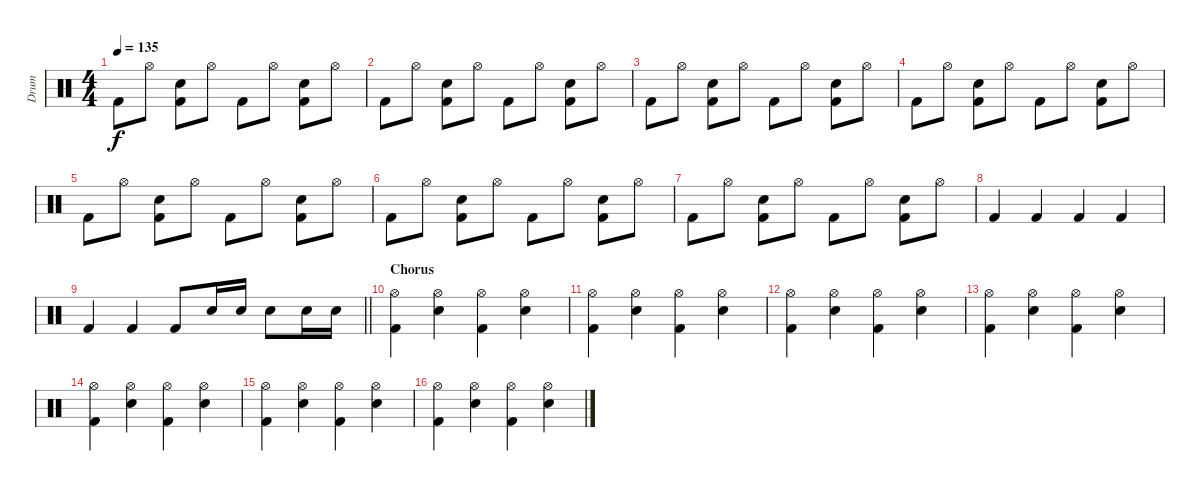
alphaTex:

\track ("Drum" "Drum") {instrument percussion}
\staff {score}
\articulation defaults
\ts (4 4)
\tempo 135
\clef neutral
\ks c "Kick (hit) 2".8{dy f} "Hi-Hat (open)".8
("Electric Snare (hit)" "Kick (hit) 2").8 "Hi-Hat (open)".8 "Kick (hit) 2".8 "Hi-Hat (open)".8 ("Electric Snare (hit)" "Kick (hit) 2").8 "Hi-Hat (open)".8 |
"Kick (hit) 2".8 "Hi-Hat (open)".8 ("Electric Snare (hit)" "Kick (hit) 2").8 "Hi-Hat (open)".8 "Kick (hit) 2".8 "Hi-Hat (open)".8 ("Electric Snare (hit)" "Kick (hit) 2").8 "Hi-Hat (open)".8 |
"Kick (hit) 2".8 "Hi-Hat (open)".8 ("Electric Snare (hit)" "Kick (hit) 2").8 "Hi-Hat (open)".8 "Kick (hit) 2".8 "Hi-Hat (open)".8 ("Electric Snare (hit)" "Kick (hit) 2").8 "Hi-Hat (open)".8 |
"Kick (hit) 2".8 "Hi-Hat (open)".8 ("Electric Snare (hit)" "Kick (hit) 2").8 "Hi-Hat (open)".8 "Kick (hit) 2".8 "Hi-Hat (open)".8 ("Electric Snare (hit)" "Kick (hit) 2").8 "Hi-Hat (open)".8 |
"Kick (hit) 2".8 "Hi-Hat (open)".8 ("Electric Snare (hit)" "Kick (hit) 2").8 "Hi-Hat (open)".8 "Kick (hit) 2".8 "Hi-Hat (open)".8 ("Electric Snare (hit)" "Kick (hit) 2").8 "Hi-Hat (open)".8 |
"Kick (hit) 2".8 "Hi-Hat (open)".8 ("Electric Snare (hit)" "Kick (hit) 2").8 "Hi-Hat (open)".8 "Kick (hit) 2".8 "Hi-Hat (open)".8 ("Electric Snare (hit)" "Kick (hit) 2").8 "Hi-Hat (open)".8 |
"Kick (hit) 2".8 "Hi-Hat (open)".8 ("Electric Snare (hit)" "Kick (hit) 2").8 "Hi-Hat (open)".8 "Kick (hit) 2".8 "Hi-Hat (open)".8 ("Electric Snare (hit)" "Kick (hit) 2").8 "Hi-Hat (open)".8 |
"Kick (hit) 2".4 "Kick (hit) 2".4 "Kick (hit) 2".4 "Kick (hit) 2".4 |
\barLineRight lightlight "Kick (hit) 2".4 "Kick (hit) 2".4 "Kick (hit) 2".8 "Electric Snare (hit)".16 "Electric Snare (hit)".16 "Electric Snare (hit)".8 "Electric Snare (hit)".16 "Electric Snare (hit)".16
|
\section ("" "Chorus")
("Hi-Hat (open)" "Kick (hit) 2").4 ("Hi-Hat (open)" "Electric Snare (hit)").4 ("Hi-Hat (open)" "Kick (hit) 2").4 ("Hi-Hat (open)" "Electric Snare (hit)").4 |
("Hi-Hat (open)" "Kick (hit) 2").4 ("Hi-Hat (open)" "Electric Snare (hit)").4 ("Hi-Hat (open)" "Kick (hit) 2").4 ("Hi-Hat (open)" "Electric Snare (hit)").4 |
("Hi-Hat (open)" "Kick (hit) 2").4 ("Hi-Hat (open)" "Electric Snare (hit)").4 ("Hi-Hat (open)" "Kick (hit) 2").4 ("Hi-Hat (open)" "Electric Snare (hit)").4 |
("Hi-Hat (open)" "Kick (hit) 2").4 ("Hi-Hat (open)" "Electric Snare (hit)").4 ("Hi-Hat (open)" "Kick (hit) 2").4 ("Hi-Hat (open)" "Electric Snare (hit)").4 |
("Hi-Hat (open)" "Kick (hit) 2").4 ("Hi-Hat (open)" "Electric Snare (hit)").4 ("Hi-Hat (open)" "Kick (hit) 2").4 ("Hi-Hat (open)" "Electric Snare (hit)").4 |
("Hi-Hat (open)" "Kick (hit) 2").4 ("Hi-Hat (open)" "Electric Snare (hit)").4 ("Hi-Hat (open)" "Kick (hit) 2").4 ("Hi-Hat (open)" "Electric Snare (hit)").4 |
("Hi-Hat (open)" "Kick (hit) 2").4 ("Hi-Hat (open)" "Electric Snare (hit)").4 ("Hi-Hat (open)" "Kick (hit) 2").4 ("Hi-Hat (open)" "Electric Snare (hit)").4
